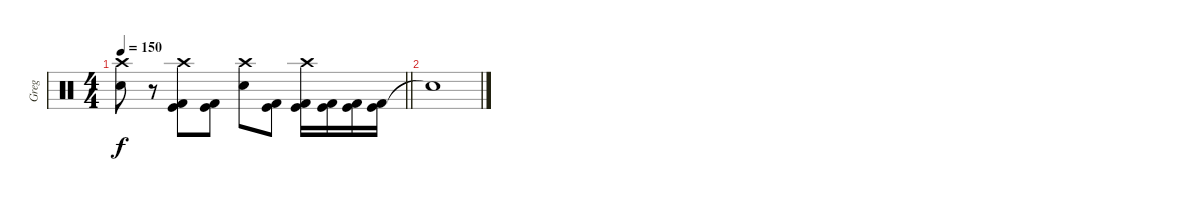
\track ("Greg" "Greg") {instrument percussion}
\staff {score}
\articulation defaults
\ts (4 4)
\tempo 150
\clef neutral
\barLineRight lightlight
\ks c
("Crash high (hit)" "Snare (hit) 2").8{dy f} r.8 ("Crash high (hit)" "Kick (hit)" "Kick (hit) 2").8 ("Kick (hit)" "Kick (hit) 2").8 ("Crash high (hit)" "Snare (hit) 2").8 ("Kick (hit)" "Kick (hit) 2").8 ("Crash high (hit)" "Kick (hit)" "Kick (hit) 2").16 ("Kick (hit)" "Kick (hit) 2").16 ("Kick (hit)" "Kick (hit) 2").16 ("Kick (hit)" "Kick (hit) 2").16 |
"Snare (hit)"{t}.1
